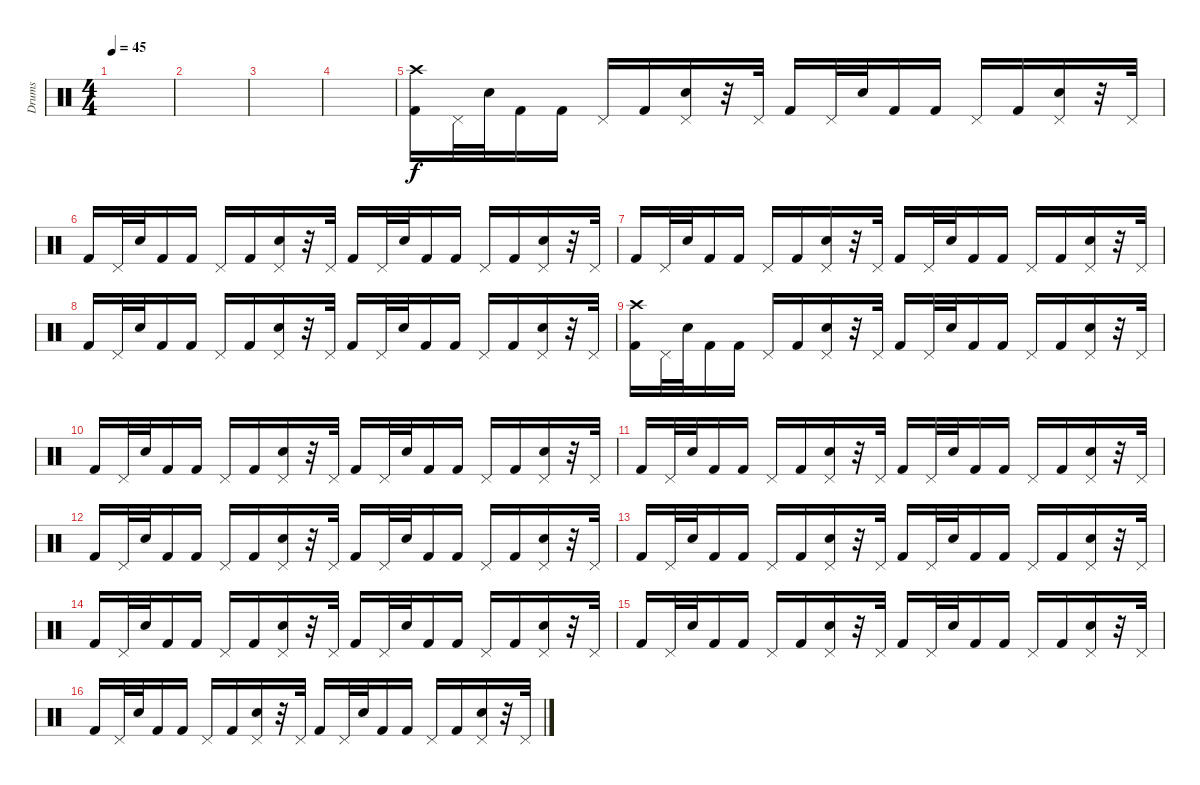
\track ("Drums" "Drums") {instrument percussion}
\staff {score}
\articulation defaults
\ts (4 4)
\tempo 45
\clef neutral
\ks c
|
|
|
|
("Crash high (hit)" "Kick (hit) 2").16 "Pedal Hi-Hat (hit)".32 "Hand Clap (hit)".32 "Kick (hit) 2".16 "Kick (hit) 2".16 "Pedal Hi-Hat (hit)".16 "Kick (hit) 2".16 ("Pedal Hi-Hat (hit)" "Hand Clap (hit)").16 r.32 "Pedal Hi-Hat (hit)".32 "Kick (hit) 2".16 "Pedal Hi-Hat (hit)".32 "Hand Clap (hit)".32 "Kick (hit) 2".16 "Kick (hit) 2".16 "Pedal Hi-Hat (hit)".16 "Kick (hit) 2".16 ("Pedal Hi-Hat (hit)" "Hand Clap (hit)").16 r.32 "Pedal Hi-Hat (hit)".32 |
"Kick (hit) 2".16 "Pedal Hi-Hat (hit)".32 "Hand Clap (hit)".32 "Kick (hit) 2".16 "Kick (hit) 2".16 "Pedal Hi-Hat (hit)".16 "Kick (hit) 2".16 ("Pedal Hi-Hat (hit)" "Hand Clap (hit)").16 r.32 "Pedal Hi-Hat (hit)".32 "Kick (hit) 2".16 "Pedal Hi-Hat (hit)".32 "Hand Clap (hit)".32 "Kick (hit) 2".16 "Kick (hit) 2".16 "Pedal Hi-Hat (hit)".16 "Kick (hit) 2".16 ("Pedal Hi-Hat (hit)" "Hand Clap (hit)").16 r.32 "Pedal Hi-Hat (hit)".32 |
"Kick (hit) 2".16 "Pedal Hi-Hat (hit)".32 "Hand Clap (hit)".32 "Kick (hit) 2".16 "Kick (hit) 2".16 "Pedal Hi-Hat (hit)".16 "Kick (hit) 2".16 ("Pedal Hi-Hat (hit)" "Hand Clap (hit)").16 r.32 "Pedal Hi-Hat (hit)".32 "Kick (hit) 2".16 "Pedal Hi-Hat (hit)".32 "Hand Clap (hit)".32 "Kick (hit) 2".16 "Kick (hit) 2".16 "Pedal Hi-Hat (hit)".16 "Kick (hit) 2".16 ("Pedal Hi-Hat (hit)" "Hand Clap (hit)").16 r.32 "Pedal Hi-Hat (hit)".32 |
"Kick (hit) 2".16 "Pedal Hi-Hat (hit)".32 "Hand Clap (hit)".32 "Kick (hit) 2".16 "Kick (hit) 2".16 "Pedal Hi-Hat (hit)".16 "Kick (hit) 2".16 ("Pedal Hi-Hat (hit)" "Hand Clap (hit)").16 r.32 "Pedal Hi-Hat (hit)".32 "Kick (hit) 2".16 "Pedal Hi-Hat (hit)".32 "Hand Clap (hit)".32 "Kick (hit) 2".16 "Kick (hit) 2".16 "Pedal Hi-Hat (hit)".16 "Kick (hit) 2".16 ("Pedal Hi-Hat (hit)" "Hand Clap (hit)").16 r.32 "Pedal Hi-Hat (hit)".32 |
("Crash high (hit)" "Kick (hit) 2").16 "Pedal Hi-Hat (hit)".32 "Hand Clap (hit)".32 "Kick (hit) 2".16 "Kick (hit) 2".16 "Pedal Hi-Hat (hit)".16 "Kick (hit) 2".16 ("Pedal Hi-Hat (hit)" "Hand Clap (hit)").16 r.32 "Pedal Hi-Hat (hit)".32 "Kick (hit) 2".16 "Pedal Hi-Hat (hit)".32 "Hand Clap (hit)".32 "Kick (hit) 2".16 "Kick (hit) 2".16 "Pedal Hi-Hat (hit)".16 "Kick (hit) 2".16 ("Pedal Hi-Hat (hit)" "Hand Clap (hit)").16 r.32 "Pedal Hi-Hat (hit)".32 |
"Kick (hit) 2".16 "Pedal Hi-Hat (hit)".32 "Hand Clap (hit)".32 "Kick (hit) 2".16 "Kick (hit) 2".16 "Pedal Hi-Hat (hit)".16 "Kick (hit) 2".16 ("Pedal Hi-Hat (hit)" "Hand Clap (hit)").16 r.32 "Pedal Hi-Hat (hit)".32 "Kick (hit) 2".16 "Pedal Hi-Hat (hit)".32 "Hand Clap (hit)".32 "Kick (hit) 2".16 "Kick (hit) 2".16 "Pedal Hi-Hat (hit)".16 "Kick (hit) 2".16 ("Pedal Hi-Hat (hit)" "Hand Clap (hit)").16 r.32 "Pedal Hi-Hat (hit)".32 |
"Kick (hit) 2".16 "Pedal Hi-Hat (hit)".32 "Hand Clap (hit)".32 "Kick (hit) 2".16 "Kick (hit) 2".16 "Pedal Hi-Hat (hit)".16 "Kick (hit) 2".16 ("Pedal Hi-Hat (hit)" "Hand Clap (hit)").16 r.32 "Pedal Hi-Hat (hit)".32 "Kick (hit) 2".16 "Pedal Hi-Hat (hit)".32 "Hand Clap (hit)".32 "Kick (hit) 2".16 "Kick (hit) 2".16 "Pedal Hi-Hat (hit)".16 "Kick (hit) 2".16 ("Pedal Hi-Hat (hit)" "Hand Clap (hit)").16 r.32 "Pedal Hi-Hat (hit)".32 |
"Kick (hit) 2".16 "Pedal Hi-Hat (hit)".32 "Hand Clap (hit)".32 "Kick (hit) 2".16 "Kick (hit) 2".16 "Pedal Hi-Hat (hit)".16 "Kick (hit) 2".16 ("Pedal Hi-Hat (hit)" "Hand Clap (hit)").16 r.32 "Pedal Hi-Hat (hit)".32 "Kick (hit) 2".16 "Pedal Hi-Hat (hit)".32 "Hand Clap (hit)".32 "Kick (hit) 2".16 "Kick (hit) 2".16 "Pedal Hi-Hat (hit)".16 "Kick (hit) 2".16 ("Pedal Hi-Hat (hit)" "Hand Clap (hit)").16 r.32 "Pedal Hi-Hat (hit)".32 |
"Kick (hit) 2".16 "Pedal Hi-Hat (hit)".32 "Hand Clap (hit)".32 "Kick (hit) 2".16 "Kick (hit) 2".16 "Pedal Hi-Hat (hit)".16 "Kick (hit) 2".16 ("Pedal Hi-Hat (hit)" "Hand Clap (hit)").16 r.32 "Pedal Hi-Hat (hit)".32 "Kick (hit) 2".16 "Pedal Hi-Hat (hit)".32 "Hand Clap (hit)".32 "Kick (hit) 2".16 "Kick (hit) 2".16 "Pedal Hi-Hat (hit)".16 "Kick (hit) 2".16 ("Pedal Hi-Hat (hit)" "Hand Clap (hit)").16 r.32 "Pedal Hi-Hat (hit)".32 |
"Kick (hit) 2".16 "Pedal Hi-Hat (hit)".32 "Hand Clap (hit)".32 "Kick (hit) 2".16 "Kick (hit) 2".16 "Pedal Hi-Hat (hit)".16 "Kick (hit) 2".16 ("Pedal Hi-Hat (hit)" "Hand Clap (hit)").16 r.32 "Pedal Hi-Hat (hit)".32 "Kick (hit) 2".16 "Pedal Hi-Hat (hit)".32 "Hand Clap (hit)".32 "Kick (hit) 2".16 "Kick (hit) 2".16 "Pedal Hi-Hat (hit)".16 "Kick (hit) 2".16 ("Pedal Hi-Hat (hit)" "Hand Clap (hit)").16 r.32 "Pedal Hi-Hat (hit)".32 |
"Kick (hit) 2".16 "Pedal Hi-Hat (hit)".32 "Hand Clap (hit)".32 "Kick (hit) 2".16 "Kick (hit) 2".16 "Pedal Hi-Hat (hit)".16 "Kick (hit) 2".16 ("Pedal Hi-Hat (hit)" "Hand Clap (hit)").16 r.32 "Pedal Hi-Hat (hit)".32 "Kick (hit) 2".16 "Pedal Hi-Hat (hit)".32 "Hand Clap (hit)".32 "Kick (hit) 2".16 "Kick (hit) 2".16 "Pedal Hi-Hat (hit)".16 "Kick (hit) 2".16 ("Pedal Hi-Hat (hit)" "Hand Clap (hit)").16 r.32 "Pedal Hi-Hat (hit)".32 |
"Kick (hit) 2".16 "Pedal Hi-Hat (hit)".32 "Hand Clap (hit)".32 "Kick (hit) 2".16 "Kick (hit) 2".16 "Pedal Hi-Hat (hit)".16 "Kick (hit) 2".16 ("Pedal Hi-Hat (hit)" "Hand Clap (hit)").16 r.32 "Pedal Hi-Hat (hit)".32 "Kick (hit) 2".16 "Pedal Hi-Hat (hit)".32 "Hand Clap (hit)".32 "Kick (hit) 2".16 "Kick (hit) 2".16 "Pedal Hi-Hat (hit)".16 "Kick (hit) 2".16 ("Pedal Hi-Hat (hit)" "Hand Clap (hit)").16 r.32 "Pedal Hi-Hat (hit)".32
